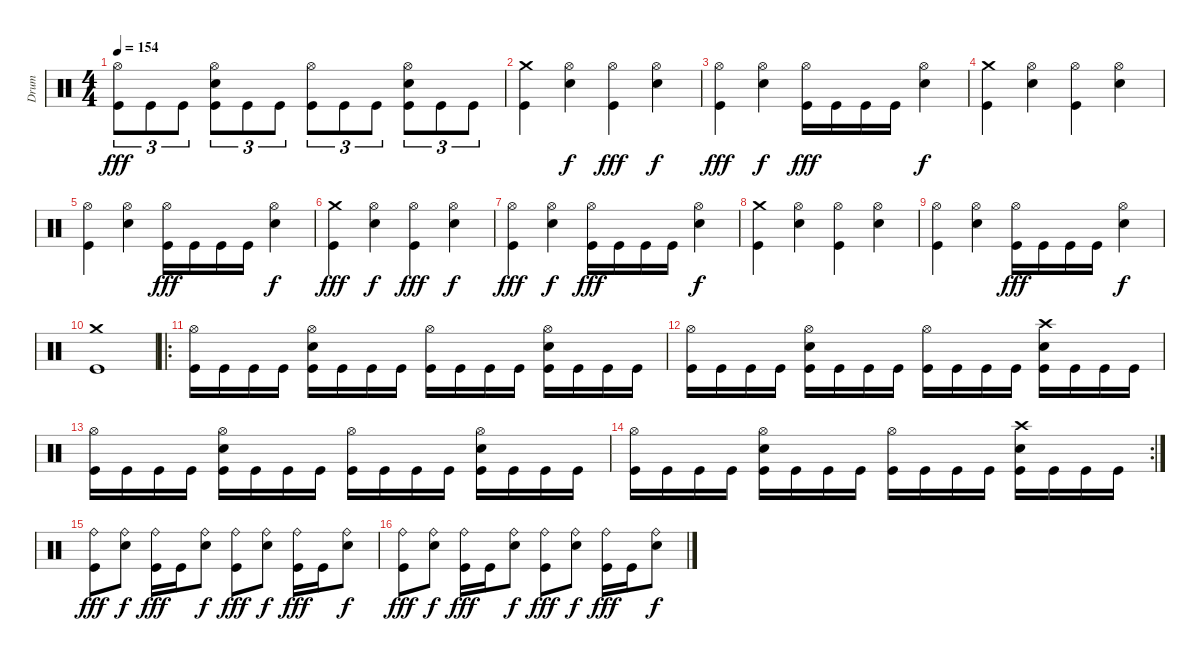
\track ("Drum" "Drum") {instrument percussion}
\staff {score}
\articulation defaults
\ts (4 4)
\tempo 154
\clef neutral
\ks c
("Hi-Hat (open)" "Kick (hit)").8{tu (3 2) dy fff} "Kick (hit)".8{tu (3 2)} "Kick (hit)".8{tu (3 2)} ("Hi-Hat (open)" "Snare (hit) 2" "Kick (hit)").8{tu (3 2)} "Kick (hit)".8{tu (3 2)} "Kick (hit)".8{tu (3 2)} ("Hi-Hat (open)" "Kick (hit)").8{tu (3 2)} "Kick (hit)".8{tu (3 2)} "Kick (hit)".8{tu (3 2)} ("Hi-Hat (open)" "Snare (hit) 2" "Kick (hit)").8{tu (3 2)} "Kick (hit)".8{tu (3 2)} "Kick (hit)".8{tu (3 2)} |
("Crash medium (hit)" "Kick (hit)").4 ("Hi-Hat (open)" "Snare (hit) 2").4{dy f} ("Hi-Hat (open)" "Kick (hit)").4{dy fff} ("Hi-Hat (open)" "Snare (hit) 2").4{dy f} |
("Hi-Hat (open)" "Kick (hit)").4{dy fff} ("Hi-Hat (open)" "Snare (hit) 2").4{dy f} ("Hi-Hat (open)" "Kick (hit)").16{dy fff} "Kick (hit)".16 "Kick (hit)".16 "Kick (hit)".16 ("Hi-Hat (open)" "Snare (hit) 2").4{dy f} |
("Crash medium (hit)" "Kick (hit)").4 ("Hi-Hat (open)" "Snare (hit) 2").4 ("Hi-Hat (open)" "Kick (hit)").4 ("Hi-Hat (open)" "Snare (hit) 2").4 |
("Hi-Hat (open)" "Kick (hit)").4 ("Hi-Hat (open)" "Snare (hit) 2").4 ("Hi-Hat (open)" "Kick (hit)").16{dy fff} "Kick (hit)".16 "Kick (hit)".16 "Kick (hit)".16 ("Hi-Hat (open)" "Snare (hit) 2").4{dy f} |
("Crash medium (hit)" "Kick (hit)").4{dy fff} ("Hi-Hat (open)" "Snare (hit) 2").4{dy f} ("Hi-Hat (open)" "Kick (hit)").4{dy fff} ("Hi-Hat (open)" "Snare (hit) 2").4{dy f} |
("Hi-Hat (open)" "Kick (hit)").4{dy fff} ("Hi-Hat (open)" "Snare (hit) 2").4{dy f} ("Hi-Hat (open)" "Kick (hit)").16{dy fff} "Kick (hit)".16 "Kick (hit)".16 "Kick (hit)".16 ("Hi-Hat (open)" "Snare (hit) 2").4{dy f} |
("Crash medium (hit)" "Kick (hit)").4 ("Hi-Hat (open)" "Snare (hit) 2").4 ("Hi-Hat (open)" "Kick (hit)").4 ("Hi-Hat (open)" "Snare (hit) 2").4 |
("Hi-Hat (open)" "Kick (hit)").4 ("Hi-Hat (open)" "Snare (hit) 2").4 ("Hi-Hat (open)" "Kick (hit)").16{dy fff} "Kick (hit)".16 "Kick (hit)".16 "Kick (hit)".16 ("Hi-Hat (open)" "Snare (hit) 2").4{dy f} |
("Crash medium (hit)" "Kick (hit)").1 |
\ro
("Hi-Hat (open)" "Kick (hit)").16 "Kick (hit)".16 "Kick (hit)".16 "Kick (hit)".16 ("Hi-Hat (open)" "Snare (hit) 2" "Kick (hit)").16 "Kick (hit)".16 "Kick (hit)".16 "Kick (hit)".16 ("Hi-Hat (open)" "Kick (hit)").16 "Kick (hit)".16 "Kick (hit)".16 "Kick (hit)".16 ("Hi-Hat (open)" "Snare (hit) 2" "Kick (hit)").16 "Kick (hit)".16 "Kick (hit)".16 "Kick (hit)".16 |
("Hi-Hat (open)" "Kick (hit)").16 "Kick (hit)".16 "Kick (hit)".16 "Kick (hit)".16 ("Hi-Hat (open)" "Snare (hit) 2" "Kick (hit)").16 "Kick (hit)".16 "Kick (hit)".16 "Kick (hit)".16 ("Hi-Hat (open)" "Kick (hit)").16 "Kick (hit)".16 "Kick (hit)".16 "Kick (hit)".16 ("Crash high (hit)" "Snare (hit) 2" "Kick (hit)").16 "Kick (hit)".16 "Kick (hit)".16 "Kick (hit)".16 |
("Hi-Hat (open)" "Kick (hit)").16 "Kick (hit)".16 "Kick (hit)".16 "Kick (hit)".16 ("Hi-Hat (open)" "Snare (hit) 2" "Kick (hit)").16 "Kick (hit)".16 "Kick (hit)".16 "Kick (hit)".16 ("Hi-Hat (open)" "Kick (hit)").16 "Kick (hit)".16 "Kick (hit)".16 "Kick (hit)".16 ("Hi-Hat (open)" "Snare (hit) 2" "Kick (hit)").16 "Kick (hit)".16 "Kick (hit)".16 "Kick (hit)".16 |
\rc 2
("Hi-Hat (open)" "Kick (hit)").16 "Kick (hit)".16 "Kick (hit)".16 "Kick (hit)".16 ("Hi-Hat (open)" "Snare (hit) 2" "Kick (hit)").16 "Kick (hit)".16 "Kick (hit)".16 "Kick (hit)".16 ("Hi-Hat (open)" "Kick (hit)").16 "Kick (hit)".16 "Kick (hit)".16 "Kick (hit)".16 ("Crash high (hit)" "Snare (hit) 2" "Kick (hit)").16 "Kick (hit)".16 "Kick (hit)".16 "Kick (hit)".16 |
("Ride (bell)" "Kick (hit)").8{dy fff} ("Ride (bell)" "Snare (hit) 2").8{dy f} ("Ride (bell)" "Kick (hit)").16{dy fff} "Kick (hit)".16 ("Ride (bell)" "Snare (hit) 2").8{dy f} ("Ride (bell)" "Kick (hit)").8{dy fff} ("Ride (bell)" "Snare (hit) 2").8{dy f} ("Ride (bell)" "Kick (hit)").16{dy fff} "Kick (hit)".16 ("Ride (bell)" "Snare (hit) 2").8{dy f} |
("Ride (bell)" "Kick (hit)").8{dy fff} ("Ride (bell)" "Snare (hit) 2").8{dy f} ("Ride (bell)" "Kick (hit)").16{dy fff} "Kick (hit)".16 ("Ride (bell)" "Snare (hit) 2").8{dy f} ("Ride (bell)" "Kick (hit)").8{dy fff} ("Ride (bell)" "Snare (hit) 2").8{dy f} ("Ride (bell)" "Kick (hit)").16{dy fff} "Kick (hit)".16 ("Ride (bell)" "Snare (hit) 2").8{dy f}
